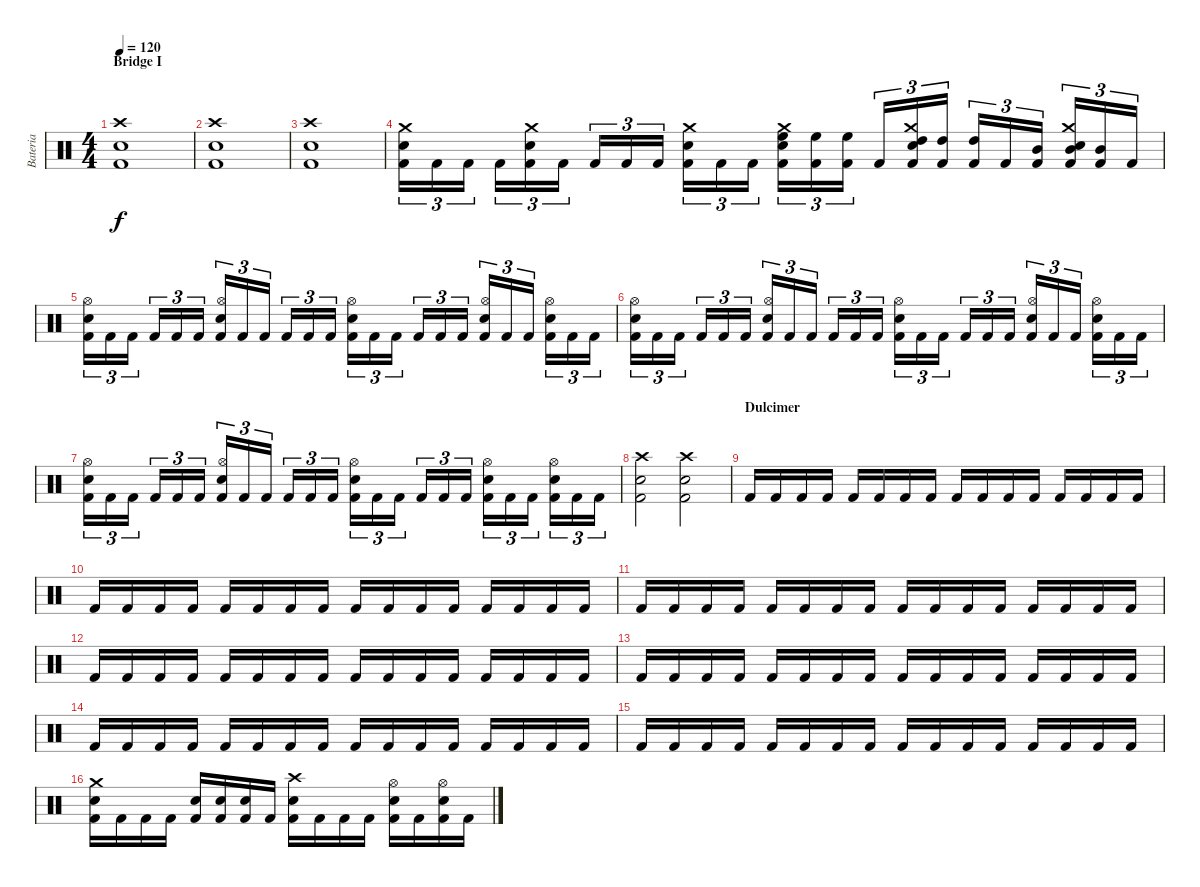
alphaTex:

\track ("Bateria" "Bateria") {instrument percussion}
\staff {score}
\articulation defaults
\ts (4 4)
\section ("" "Bridge I")
\tempo 120
\clef neutral
\ks c
("Crash high (hit)" "Snare (hit) 2" "Kick (hit) 2").1{dy f} |
("Crash high (hit)" "Snare (hit) 2" "Kick (hit) 2").1 |
("Crash high (hit)" "Snare (hit) 2" "Kick (hit) 2").1 |
("Crash medium (hit)" "Snare (hit) 2" "Kick (hit) 2").16{tu (3 2)} "Kick (hit) 2".16{tu (3 2)} "Kick (hit) 2".16{tu (3 2)} "Kick (hit) 2".16{tu (3 2)} ("Crash medium (hit)" "Snare (hit) 2" "Kick (hit) 2").16{tu (3 2)} "Kick (hit) 2".16{tu (3 2)} "Kick (hit) 2".16{tu (3 2)} "Kick (hit) 2".16{tu (3 2)} "Kick (hit) 2".16{tu (3 2)} ("Crash medium (hit)" "Snare (hit) 2" "Kick (hit) 2").16{tu (3 2)} "Kick (hit) 2".16{tu (3 2)} "Kick (hit) 2".16{tu (3 2)} ("Crash medium (hit)" "Snare (hit) 2" "High Floor Tom (hit)" "Kick (hit) 2").16{tu (3 2)} ("High Floor Tom (hit)" "Kick (hit) 2").16{tu (3 2)} ("High Floor Tom (hit)" "Kick (hit) 2").16{tu (3 2)} "Kick (hit) 2".16{tu (3 2)} ("Crash medium (hit)" "Snare (hit) 2" "High Tom (hit)" "Kick (hit) 2").16{tu (3 2)} ("High Tom (hit)" "Kick (hit) 2").16{tu (3 2)} ("High Tom (hit)" "Kick (hit) 2").16{tu (3 2)} "Kick (hit) 2".16{tu (3 2)} ("Mid Tom (hit)" "Kick (hit) 2").16{tu (3 2)} ("Crash medium (hit)" "Snare (hit) 2" "Mid Tom (hit)" "Kick (hit) 2").16{tu (3 2)} ("Mid Tom (hit)" "Kick (hit) 2").16{tu (3 2)} "Kick (hit) 2".16{tu (3 2)} |
("Hi-Hat (open)" "Snare (hit) 2" "Kick (hit) 2").16{tu (3 2)} "Kick (hit) 2".16{tu (3 2)} "Kick (hit) 2".16{tu (3 2)} "Kick (hit) 2".16{tu (3 2)} "Kick (hit) 2".16{tu (3 2)} "Kick (hit) 2".16{tu (3 2)} ("Hi-Hat (open)" "Electric Snare (hit)" "Kick (hit) 2").16{tu (3 2)} "Kick (hit) 2".16{tu (3 2)} "Kick (hit) 2".16{tu (3 2)} "Kick (hit) 2".16{tu (3 2)} "Kick (hit) 2".16{tu (3 2)} "Kick (hit) 2".16{tu (3 2)} ("Hi-Hat (open)" "Snare (hit) 2" "Kick (hit) 2").16{tu (3 2)} "Kick (hit) 2".16{tu (3 2)} "Kick (hit) 2".16{tu (3 2)} "Kick (hit) 2".16{tu (3 2)} "Kick (hit) 2".16{tu (3 2)} "Kick (hit) 2".16{tu (3 2)} ("Hi-Hat (open)" "Electric Snare (hit)" "Kick (hit) 2").16{tu (3 2)} "Kick (hit) 2".16{tu (3 2)} "Kick (hit) 2".16{tu (3 2)} ("Hi-Hat (open)" "Snare (hit) 2" "Kick (hit) 2").16{tu (3 2)} "Kick (hit) 2".16{tu (3 2)} "Kick (hit) 2".16{tu (3 2)} |
("Hi-Hat (open)" "Snare (hit) 2" "Kick (hit) 2").16{tu (3 2)} "Kick (hit) 2".16{tu (3 2)} "Kick (hit) 2".16{tu (3 2)} "Kick (hit) 2".16{tu (3 2)} "Kick (hit) 2".16{tu (3 2)} "Kick (hit) 2".16{tu (3 2)} ("Hi-Hat (open)" "Electric Snare (hit)" "Kick (hit) 2").16{tu (3 2)} "Kick (hit) 2".16{tu (3 2)} "Kick (hit) 2".16{tu (3 2)} "Kick (hit) 2".16{tu (3 2)} "Kick (hit) 2".16{tu (3 2)} "Kick (hit) 2".16{tu (3 2)} ("Hi-Hat (open)" "Snare (hit) 2" "Kick (hit) 2").16{tu (3 2)} "Kick (hit) 2".16{tu (3 2)} "Kick (hit) 2".16{tu (3 2)} "Kick (hit) 2".16{tu (3 2)} "Kick (hit) 2".16{tu (3 2)} "Kick (hit) 2".16{tu (3 2)} ("Hi-Hat (open)" "Electric Snare (hit)" "Kick (hit) 2").16{tu (3 2)} "Kick (hit) 2".16{tu (3 2)} "Kick (hit) 2".16{tu (3 2)} ("Hi-Hat (open)" "Snare (hit) 2" "Kick (hit) 2").16{tu (3 2)} "Kick (hit) 2".16{tu (3 2)} "Kick (hit) 2".16{tu (3 2)} |
("Hi-Hat (open)" "Snare (hit) 2" "Kick (hit) 2").16{tu (3 2)} "Kick (hit) 2".16{tu (3 2)} "Kick (hit) 2".16{tu (3 2)} "Kick (hit) 2".16{tu (3 2)} "Kick (hit) 2".16{tu (3 2)} "Kick (hit) 2".16{tu (3 2)} ("Hi-Hat (open)" "Electric Snare (hit)" "Kick (hit) 2").16{tu (3 2)} "Kick (hit) 2".16{tu (3 2)} "Kick (hit) 2".16{tu (3 2)} "Kick (hit) 2".16{tu (3 2)} "Kick (hit) 2".16{tu (3 2)} "Kick (hit) 2".16{tu (3 2)} ("Hi-Hat (open)" "Snare (hit) 2" "Kick (hit) 2").16{tu (3 2)} "Kick (hit) 2".16{tu (3 2)} "Kick (hit) 2".16{tu (3 2)} "Kick (hit) 2".16{tu (3 2)} "Kick (hit) 2".16{tu (3 2)} "Kick (hit) 2".16{tu (3 2)} ("Hi-Hat (open)" "Snare (hit) 2" "Kick (hit) 2").16{tu (3 2)} "Kick (hit) 2".16{tu (3 2)} "Kick (hit) 2".16{tu (3 2)} ("Hi-Hat (open)" "Snare (hit) 2" "Kick (hit) 2").16{tu (3 2)} "Kick (hit) 2".16{tu (3 2)} "Kick (hit) 2".16{tu (3 2)} |
("Crash high (hit)" "Snare (hit) 2" "Kick (hit) 2").2 ("Crash high (hit)" "Snare (hit) 2" "Kick (hit) 2").2 |
\section ("" "Dulcimer")
"Kick (hit) 2".16 "Kick (hit) 2".16 "Kick (hit) 2".16 "Kick (hit) 2".16 "Kick (hit) 2".16 "Kick (hit) 2".16 "Kick (hit) 2".16 "Kick (hit) 2".16 "Kick (hit) 2".16 "Kick (hit) 2".16 "Kick (hit) 2".16 "Kick (hit) 2".16 "Kick (hit) 2".16 "Kick (hit) 2".16 "Kick (hit) 2".16 "Kick (hit) 2".16 |
"Kick (hit) 2".16 "Kick (hit) 2".16 "Kick (hit) 2".16 "Kick (hit) 2".16 "Kick (hit) 2".16 "Kick (hit) 2".16 "Kick (hit) 2".16 "Kick (hit) 2".16 "Kick (hit) 2".16 "Kick (hit) 2".16 "Kick (hit) 2".16 "Kick (hit) 2".16 "Kick (hit) 2".16 "Kick (hit) 2".16 "Kick (hit) 2".16 "Kick (hit) 2".16 |
"Kick (hit) 2".16 "Kick (hit) 2".16 "Kick (hit) 2".16 "Kick (hit) 2".16 "Kick (hit) 2".16 "Kick (hit) 2".16 "Kick (hit) 2".16 "Kick (hit) 2".16 "Kick (hit) 2".16 "Kick (hit) 2".16 "Kick (hit) 2".16 "Kick (hit) 2".16 "Kick (hit) 2".16 "Kick (hit) 2".16 "Kick (hit) 2".16 "Kick (hit) 2".16 |
"Kick (hit) 2".16 "Kick (hit) 2".16 "Kick (hit) 2".16 "Kick (hit) 2".16 "Kick (hit) 2".16 "Kick (hit) 2".16 "Kick (hit) 2".16 "Kick (hit) 2".16 "Kick (hit) 2".16 "Kick (hit) 2".16 "Kick (hit) 2".16 "Kick (hit) 2".16 "Kick (hit) 2".16 "Kick (hit) 2".16 "Kick (hit) 2".16 "Kick (hit) 2".16 |
"Kick (hit) 2".16 "Kick (hit) 2".16 "Kick (hit) 2".16 "Kick (hit) 2".16 "Kick (hit) 2".16 "Kick (hit) 2".16 "Kick (hit) 2".16 "Kick (hit) 2".16 "Kick (hit) 2".16 "Kick (hit) 2".16 "Kick (hit) 2".16 "Kick (hit) 2".16 "Kick (hit) 2".16 "Kick (hit) 2".16 "Kick (hit) 2".16 "Kick (hit) 2".16 |
"Kick (hit) 2".16 "Kick (hit) 2".16 "Kick (hit) 2".16 "Kick (hit) 2".16 "Kick (hit) 2".16 "Kick (hit) 2".16 "Kick (hit) 2".16 "Kick (hit) 2".16 "Kick (hit) 2".16 "Kick (hit) 2".16 "Kick (hit) 2".16 "Kick (hit) 2".16 "Kick (hit) 2".16 "Kick (hit) 2".16 "Kick (hit) 2".16 "Kick (hit) 2".16 |
"Kick (hit) 2".16 "Kick (hit) 2".16 "Kick (hit) 2".16 "Kick (hit) 2".16 "Kick (hit) 2".16 "Kick (hit) 2".16 "Kick (hit) 2".16 "Kick (hit) 2".16 "Kick (hit) 2".16 "Kick (hit) 2".16 "Kick (hit) 2".16 "Kick (hit) 2".16 "Kick (hit) 2".16 "Kick (hit) 2".16 "Kick (hit) 2".16 "Kick (hit) 2".16 |
("Crash medium (hit)" "Snare (hit) 2" "Kick (hit) 2").16 "Kick (hit) 2".16 "Kick (hit) 2".16 "Kick (hit) 2".16 ("Snare (hit) 2" "Kick (hit) 2").16 ("Snare (hit) 2" "Kick (hit) 2").16 ("Snare (hit) 2" "Kick (hit) 2").16 "Kick (hit) 2".16 ("Crash high (hit)" "Snare (hit) 2" "Kick (hit) 2").16 "Kick (hit) 2".16 "Kick (hit) 2".16 "Kick (hit) 2".16 ("Hi-Hat (open)" "Snare (hit) 2" "Kick (hit) 2").16 "Kick (hit) 2".16 ("Hi-Hat (open)" "Snare (hit) 2" "Kick (hit) 2").16 "Kick (hit) 2".16
